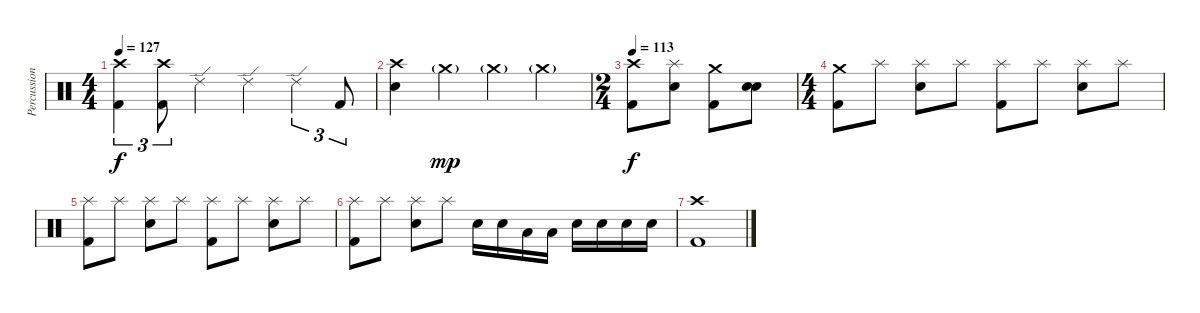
\track ("Percussion" "Percussion") {instrument percussion}
\staff {score}
\articulation defaults
\ts (4 4)
\tempo 127
\clef neutral
\ks c
("Crash high (hit)" "Kick (hit) 2").4{tu (3 2) dy f} ("Crash high (hit)" "Kick (hit) 2").8{tu (3 2)} "Ride (edge) 2".4 "Ride (edge) 2".4 "Ride (edge) 2".4{tu (3 2)} "Kick (hit) 2".8{tu (3 2)} |
("Crash high (hit)" "Electric Snare (hit)").4 "Crash medium (hit)"{g}.4{dy mp} "Crash medium (hit)"{g}.4 "Crash medium (hit)"{g}.4 |
\ts (2 4)
\tempo 113
("Crash high (hit)" "Kick (hit) 2").8{dy f} ("Splash (hit)" "Electric Snare (hit)").8 ("Crash medium (hit)" "Kick (hit) 2").8 ("Electric Snare (hit)" "Electric Snare (hit)").8 |
\ts (4 4)
("Crash medium (hit)" "Kick (hit) 2").8 "Splash (hit)".8 ("Splash (hit)" "Electric Snare (hit)").8 "Splash (hit)".8 ("Splash (hit)" "Kick (hit) 2").8 "Splash (hit)".8 ("Splash (hit)" "Electric Snare (hit)").8 "Splash (hit)".8 |
("Splash (hit)" "Kick (hit) 2").8 "Splash (hit)".8 ("Splash (hit)" "Electric Snare (hit)").8 "Splash (hit)".8 ("Splash (hit)" "Kick (hit) 2").8 "Splash (hit)".8 ("Splash (hit)" "Electric Snare (hit)").8 "Splash (hit)".8 |
("Splash (hit)" "Kick (hit) 2").8 "Splash (hit)".8 ("Splash (hit)" "Electric Snare (hit)").8 "Splash (hit)".8 "Electric Snare (hit)".16 "Electric Snare (hit)".16 "Low Floor Tom (hit)".16 "Low Floor Tom (hit)".16 "Electric Snare (hit)".16 "Electric Snare (hit)".16 "Electric Snare (hit)".16 "Electric Snare (hit)".16 |
("Crash high (hit)" "Kick (hit) 2").1
